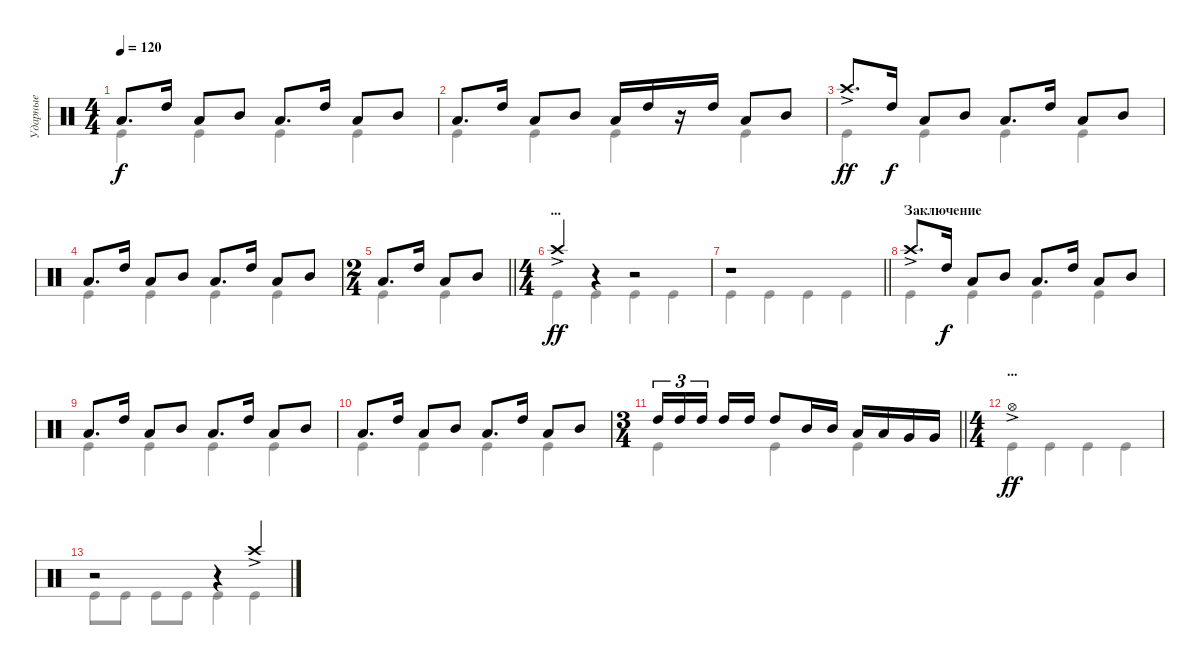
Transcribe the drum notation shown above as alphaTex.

\track ("Ударные" "Ударные") {instrument percussion}
\staff {score}
\articulation defaults
\voice
\ts (4 4)
\tempo 120
\clef neutral
\ks c "Low Tom (hit)".8{d dy f} "High Tom (hit)".16 "Low Tom (hit)".8 "Mid Tom (hit)".8 "Low Tom (hit)".8{d} "High Tom (hit)".16 "Low Tom (hit)".8 "Mid Tom (hit)".8
|
"Low Tom (hit)".8{d} "High Tom (hit)".16 "Low Tom (hit)".8 "Mid Tom (hit)".8 "Low Tom (hit)".16 "High Tom (hit)".16 r.16 "High Tom (hit)".16 "Low Tom (hit)".8 "Mid Tom (hit)".8 |
"Crash high (hit)"{ac}.8{d dy ff} "High Tom (hit)".16{dy f} "Low Tom (hit)".8 "Mid Tom (hit)".8 "Low Tom (hit)".8{d} "High Tom (hit)".16 "Low Tom (hit)".8 "Mid Tom (hit)".8 |
"Low Tom (hit)".8{d} "High Tom (hit)".16 "Low Tom (hit)".8 "Mid Tom (hit)".8 "Low Tom (hit)".8{d} "High Tom (hit)".16 "Low Tom (hit)".8 "Mid Tom (hit)".8 |
\ts (2 4)
\barLineRight lightlight "Low Tom (hit)".8{d} "High Tom (hit)".16 "Low Tom (hit)".8 "Mid Tom (hit)".8
|
\ts (4 4)
\section ("" "...")
"Crash high (hit)"{ac}.4{dy ff} r.4 r.2 |
\barLineRight lightlight
r.1 |
\section ("" "Заключение")
"Crash high (hit)"{ac}.8{d} "High Tom (hit)".16{dy f} "Low Tom (hit)".8 "Mid Tom (hit)".8 "Low Tom (hit)".8{d} "High Tom (hit)".16 "Low Tom (hit)".8 "Mid Tom (hit)".8 |
"Low Tom (hit)".8{d} "High Tom (hit)".16 "Low Tom (hit)".8 "Mid Tom (hit)".8 "Low Tom (hit)".8{d} "High Tom (hit)".16 "Low Tom (hit)".8 "Mid Tom (hit)".8 |
"Low Tom (hit)".8{d} "High Tom (hit)".16 "Low Tom (hit)".8 "Mid Tom (hit)".8 "Low Tom (hit)".8{d} "High Tom (hit)".16 "Low Tom (hit)".8 "Mid Tom (hit)".8 |
\ts (3 4)
\barLineRight lightlight "High Tom (hit)".16{tu (3 2)} "High Tom (hit)".16{tu (3 2)} "High Tom (hit)".16{tu (3 2) beam splitsecondary} "High Tom (hit)".16 "High Tom (hit)".16 "High Tom (hit)".8 "Mid Tom (hit)".16 "Mid Tom (hit)".16 "Low Tom (hit)".16 "Low Tom (hit)".16 "Very Low Tom (hit)".16 "Very Low Tom (hit)".16
|
\ts (4 4)
\section ("" "...")
"Hi-Hat (open)"{ac}.1{dy ff} |
r.2 r.4 "Crash high (hit)"{ac}.4
\voice
\clef neutral
\ottava regular
\simile none
\ks c "Kick (hit)".4{dy f} "Kick (hit)".4 "Kick (hit)".4 "Kick (hit)".4
|
"Kick (hit)".4 "Kick (hit)".4 "Kick (hit)".4 "Kick (hit)".4 |
"Kick (hit)".4 "Kick (hit)".4 "Kick (hit)".4 "Kick (hit)".4 |
"Kick (hit)".4 "Kick (hit)".4 "Kick (hit)".4 "Kick (hit)".4 |
\barLineRight lightlight "Kick (hit)".4 "Kick (hit)".4
|
"Kick (hit)".4 "Kick (hit)".4 "Kick (hit)".4 "Kick (hit)".4 |
\barLineRight lightlight "Kick (hit)".4 "Kick (hit)".4 "Kick (hit)".4 "Kick (hit)".4
|
"Kick (hit)".4 "Kick (hit)".4 "Kick (hit)".4 "Kick (hit)".4 |
"Kick (hit)".4 "Kick (hit)".4 "Kick (hit)".4 "Kick (hit)".4 |
"Kick (hit)".4 "Kick (hit)".4 "Kick (hit)".4 "Kick (hit)".4 |
\barLineRight lightlight "Kick (hit)".4 "Kick (hit)".4 "Kick (hit)".4
|
"Kick (hit)".4 "Kick (hit)".4 "Kick (hit)".4 "Kick (hit)".4 |
"Kick (hit)".8 "Kick (hit)".8 "Kick (hit)".8 "Kick (hit)".8 "Kick (hit)".4 "Kick (hit)".4
